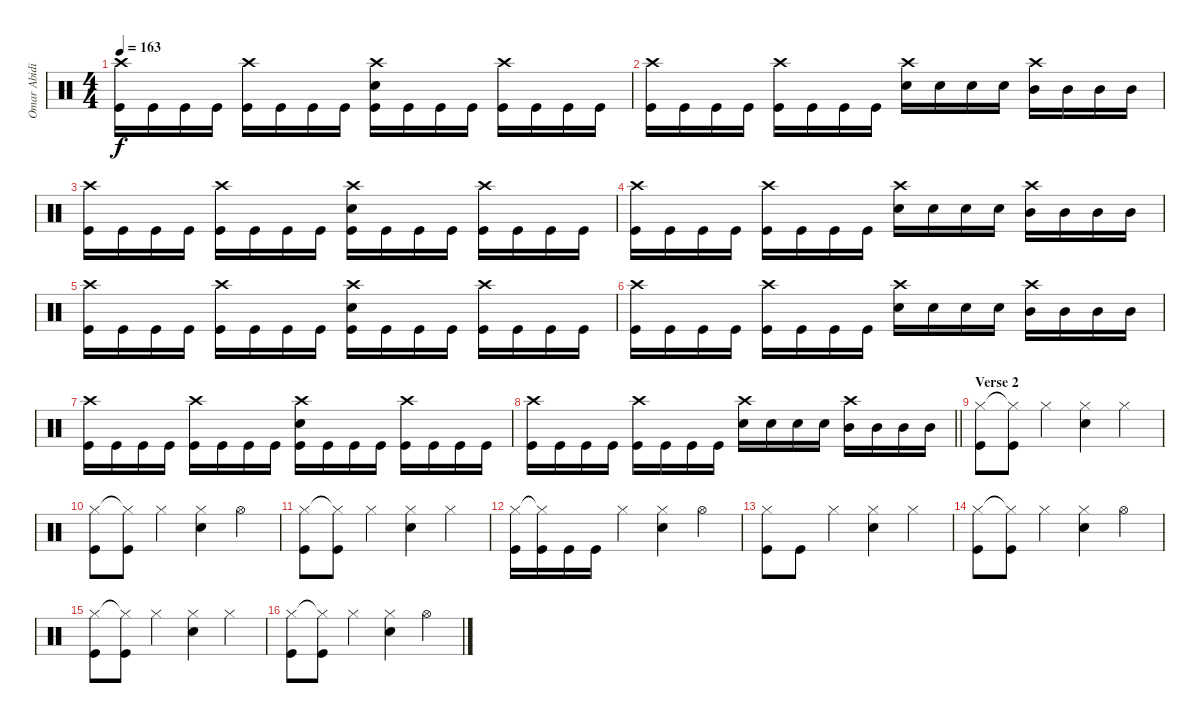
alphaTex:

\track ("Omar Abidi" "Omar Abidi") {instrument percussion}
\staff {score}
\articulation defaults
\ts (4 4)
\tempo 163
\clef neutral
\ks c
("Crash high (hit)" "Kick (hit)").16{dy f} "Kick (hit)".16 "Kick (hit)".16 "Kick (hit)".16 ("Crash high (hit)" "Kick (hit)").16 "Kick (hit)".16 "Kick (hit)".16 "Kick (hit)".16 ("Crash high (hit)" "Snare (hit) 2" "Kick (hit)").16 "Kick (hit)".16 "Kick (hit)".16 "Kick (hit)".16 ("Crash high (hit)" "Kick (hit)").16 "Kick (hit)".16 "Kick (hit)".16 "Kick (hit)".16 |
("Crash high (hit)" "Kick (hit)").16 "Kick (hit)".16 "Kick (hit)".16 "Kick (hit)".16 ("Crash high (hit)" "Kick (hit)").16 "Kick (hit)".16 "Kick (hit)".16 "Kick (hit)".16 ("Crash high (hit)" "Snare (hit) 2").16 "Snare (hit) 2".16 "Snare (hit) 2".16 "Snare (hit) 2".16 ("Crash high (hit)" "Mid Tom (hit)").16 "Mid Tom (hit)".16 "Mid Tom (hit)".16 "Mid Tom (hit)".16 |
("Crash high (hit)" "Kick (hit)").16 "Kick (hit)".16 "Kick (hit)".16 "Kick (hit)".16 ("Crash high (hit)" "Kick (hit)").16 "Kick (hit)".16 "Kick (hit)".16 "Kick (hit)".16 ("Crash high (hit)" "Snare (hit) 2" "Kick (hit)").16 "Kick (hit)".16 "Kick (hit)".16 "Kick (hit)".16 ("Crash high (hit)" "Kick (hit)").16 "Kick (hit)".16 "Kick (hit)".16 "Kick (hit)".16 |
("Crash high (hit)" "Kick (hit)").16 "Kick (hit)".16 "Kick (hit)".16 "Kick (hit)".16 ("Crash high (hit)" "Kick (hit)").16 "Kick (hit)".16 "Kick (hit)".16 "Kick (hit)".16 ("Crash high (hit)" "Snare (hit) 2").16 "Snare (hit) 2".16 "Snare (hit) 2".16 "Snare (hit) 2".16 ("Crash high (hit)" "Mid Tom (hit)").16 "Mid Tom (hit)".16 "Mid Tom (hit)".16 "Mid Tom (hit)".16 |
("Crash high (hit)" "Kick (hit)").16 "Kick (hit)".16 "Kick (hit)".16 "Kick (hit)".16 ("Crash high (hit)" "Kick (hit)").16 "Kick (hit)".16 "Kick (hit)".16 "Kick (hit)".16 ("Crash high (hit)" "Snare (hit) 2" "Kick (hit)").16 "Kick (hit)".16 "Kick (hit)".16 "Kick (hit)".16 ("Crash high (hit)" "Kick (hit)").16 "Kick (hit)".16 "Kick (hit)".16 "Kick (hit)".16 |
("Crash high (hit)" "Kick (hit)").16 "Kick (hit)".16 "Kick (hit)".16 "Kick (hit)".16 ("Crash high (hit)" "Kick (hit)").16 "Kick (hit)".16 "Kick (hit)".16 "Kick (hit)".16 ("Crash high (hit)" "Snare (hit) 2").16 "Snare (hit) 2".16 "Snare (hit) 2".16 "Snare (hit) 2".16 ("Crash high (hit)" "Mid Tom (hit)").16 "Mid Tom (hit)".16 "Mid Tom (hit)".16 "Mid Tom (hit)".16 |
("Crash high (hit)" "Kick (hit)").16 "Kick (hit)".16 "Kick (hit)".16 "Kick (hit)".16 ("Crash high (hit)" "Kick (hit)").16 "Kick (hit)".16 "Kick (hit)".16 "Kick (hit)".16 ("Crash high (hit)" "Snare (hit) 2" "Kick (hit)").16 "Kick (hit)".16 "Kick (hit)".16 "Kick (hit)".16 ("Crash high (hit)" "Kick (hit)").16 "Kick (hit)".16 "Kick (hit)".16 "Kick (hit)".16 |
\barLineRight lightlight
("Crash high (hit)" "Kick (hit)").16 "Kick (hit)".16 "Kick (hit)".16 "Kick (hit)".16 ("Crash high (hit)" "Kick (hit)").16 "Kick (hit)".16 "Kick (hit)".16 "Kick (hit)".16 ("Crash high (hit)" "Snare (hit) 2").16 "Snare (hit) 2".16 "Snare (hit) 2".16 "Snare (hit) 2".16 ("Crash high (hit)" "Mid Tom (hit)").16 "Mid Tom (hit)".16 "Mid Tom (hit)".16 "Mid Tom (hit)".16 |
\section ("" "Verse 2")
("Hi-Hat (closed)" "Kick (hit)").8 ("Hi-Hat (closed)"{t} "Kick (hit)").8 "Hi-Hat (closed)".4 ("Hi-Hat (closed)" "Snare (hit) 2").4 "Hi-Hat (closed)".4 |
("Hi-Hat (closed)" "Kick (hit)").8 ("Hi-Hat (closed)"{t} "Kick (hit)").8 "Hi-Hat (closed)".4 ("Hi-Hat (closed)" "Snare (hit) 2").4 "Hi-Hat (open)".4 |
("Hi-Hat (closed)" "Kick (hit)").8 ("Hi-Hat (closed)"{t} "Kick (hit)").8 "Hi-Hat (closed)".4 ("Hi-Hat (closed)" "Snare (hit) 2").4 "Hi-Hat (closed)".4 |
("Hi-Hat (closed)" "Kick (hit)").16 ("Hi-Hat (closed)"{t} "Kick (hit)").16 "Kick (hit)".16 "Kick (hit)".16 "Hi-Hat (closed)".4 ("Hi-Hat (closed)" "Snare (hit) 2").4 "Hi-Hat (open)".4 |
("Hi-Hat (closed)" "Kick (hit)").8 "Kick (hit)".8 "Hi-Hat (closed)".4 ("Hi-Hat (closed)" "Snare (hit) 2").4 "Hi-Hat (closed)".4 |
("Hi-Hat (closed)" "Kick (hit)").8 ("Hi-Hat (closed)"{t} "Kick (hit)").8 "Hi-Hat (closed)".4 ("Hi-Hat (closed)" "Snare (hit) 2").4 "Hi-Hat (open)".4 |
("Hi-Hat (closed)" "Kick (hit)").8 ("Hi-Hat (closed)"{t} "Kick (hit)").8 "Hi-Hat (closed)".4 ("Hi-Hat (closed)" "Snare (hit) 2").4 "Hi-Hat (closed)".4 |
("Hi-Hat (closed)" "Kick (hit)").8 ("Hi-Hat (closed)"{t} "Kick (hit)").8 "Hi-Hat (closed)".4 ("Hi-Hat (closed)" "Snare (hit) 2").4 "Hi-Hat (open)".4
